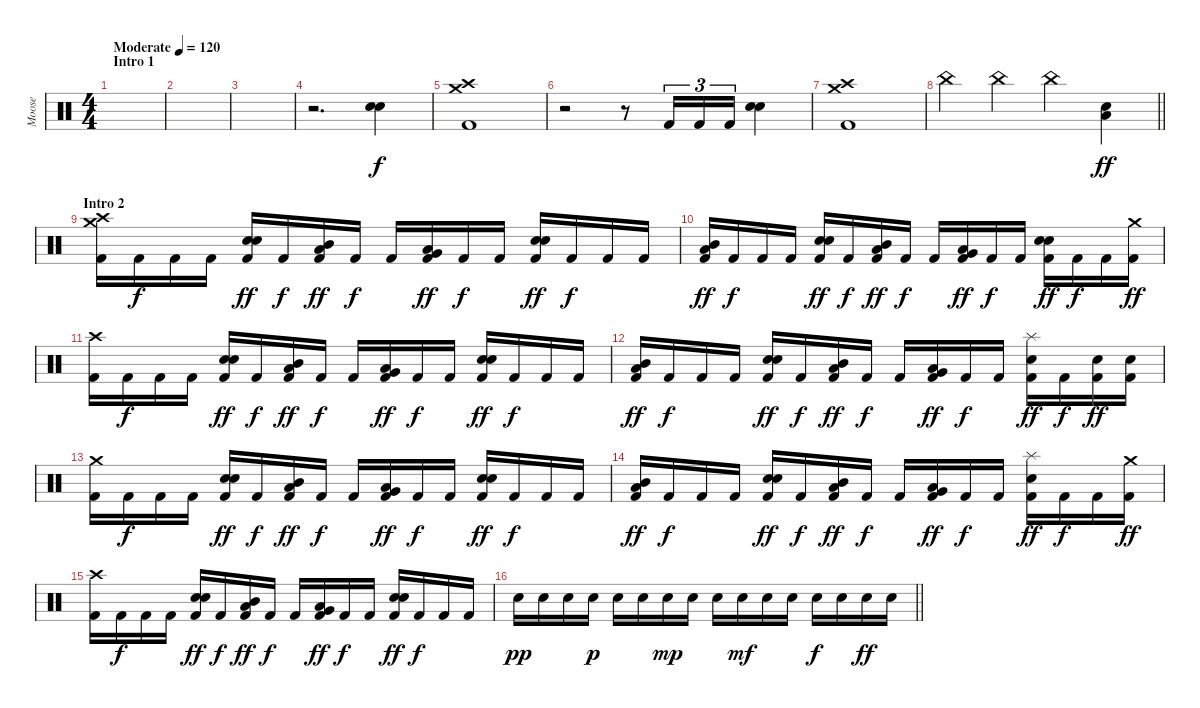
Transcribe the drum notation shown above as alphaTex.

\track ("Moose" "Moose") {instrument percussion}
\staff {score}
\articulation defaults
\ts (4 4)
\section ("" "Intro 1")
\tempo (120 "Moderate")
\clef neutral
\ks c
|
|
|
r.2{d} ("Electric Snare (hit)" "Electric Snare (hit)").4 |
("Crash medium (hit)" "Crash high (hit)" "Kick (hit) 2").1 |
r.2 r.8 "Kick (hit) 2".16{tu (3 2)} "Kick (hit) 2".16{tu (3 2)} "Kick (hit) 2".16{tu (3 2)} ("Electric Snare (hit)" "Electric Snare (hit)").4 |
("Crash medium (hit)" "Crash high (hit)" "Kick (hit) 2").1 |
\barLineRight lightlight "China (hit)".4 "China (hit)".4 "China (hit)".4
("Low Tom (hit)" "Electric Snare (hit)").4{dy ff} |
\section ("" "Intro 2")
("Crash medium (hit)" "Crash high (hit)" "Kick (hit) 2").16 "Kick (hit) 2".16{dy f} "Kick (hit) 2".16 "Kick (hit) 2".16 ("Electric Snare (hit)" "Electric Snare (hit)" "Kick (hit) 2").16{dy ff} "Kick (hit) 2".16{dy f} ("Mid Tom (hit)" "Low Tom (hit)" "Kick (hit) 2").16{dy ff} "Kick (hit) 2".16{dy f} "Kick (hit) 2".16 ("Low Tom (hit)" "Very Low Tom (hit)" "Kick (hit) 2").16{dy ff} "Kick (hit) 2".16{dy f} "Kick (hit) 2".16 ("Electric Snare (hit)" "Electric Snare (hit)" "Kick (hit) 2").16{dy ff} "Kick (hit) 2".16{dy f} "Kick (hit) 2".16 "Kick (hit) 2".16 |
("Mid Tom (hit)" "Low Tom (hit)" "Kick (hit) 2").16{dy ff} "Kick (hit) 2".16{dy f} "Kick (hit) 2".16 "Kick (hit) 2".16 ("Electric Snare (hit)" "Electric Snare (hit)" "Kick (hit) 2").16{dy ff} "Kick (hit) 2".16{dy f} ("Mid Tom (hit)" "Low Tom (hit)" "Kick (hit) 2").16{dy ff} "Kick (hit) 2".16{dy f} "Kick (hit) 2".16 ("Low Tom (hit)" "Very Low Tom (hit)" "Kick (hit) 2").16{dy ff} "Kick (hit) 2".16{dy f} "Kick (hit) 2".16 ("Electric Snare (hit)" "Electric Snare (hit)" "Kick (hit) 2").16{dy ff} "Kick (hit) 2".16{dy f} "Kick (hit) 2".16 ("Crash medium (hit)" "Kick (hit) 2").16{dy ff} |
("Crash high (hit)" "Kick (hit) 2").16 "Kick (hit) 2".16{dy f} "Kick (hit) 2".16 "Kick (hit) 2".16 ("Electric Snare (hit)" "Electric Snare (hit)" "Kick (hit) 2").16{dy ff} "Kick (hit) 2".16{dy f} ("Mid Tom (hit)" "Low Tom (hit)" "Kick (hit) 2").16{dy ff} "Kick (hit) 2".16{dy f} "Kick (hit) 2".16 ("Low Tom (hit)" "Very Low Tom (hit)" "Kick (hit) 2").16{dy ff} "Kick (hit) 2".16{dy f} "Kick (hit) 2".16 ("Electric Snare (hit)" "Electric Snare (hit)" "Kick (hit) 2").16{dy ff} "Kick (hit) 2".16{dy f} "Kick (hit) 2".16 "Kick (hit) 2".16 |
("Mid Tom (hit)" "Low Tom (hit)" "Kick (hit) 2").16{dy ff} "Kick (hit) 2".16{dy f} "Kick (hit) 2".16 "Kick (hit) 2".16 ("Electric Snare (hit)" "Electric Snare (hit)" "Kick (hit) 2").16{dy ff} "Kick (hit) 2".16{dy f} ("Mid Tom (hit)" "Low Tom (hit)" "Kick (hit) 2").16{dy ff} "Kick (hit) 2".16{dy f} "Kick (hit) 2".16 ("Low Tom (hit)" "Very Low Tom (hit)" "Kick (hit) 2").16{dy ff} "Kick (hit) 2".16{dy f} "Kick (hit) 2".16 ("Splash (hit)" "Electric Snare (hit)" "Kick (hit) 2").16{dy ff} "Kick (hit) 2".16{dy f} ("Electric Snare (hit)" "Kick (hit) 2").16{dy ff} ("Electric Snare (hit)" "Kick (hit) 2").16 |
("Crash medium (hit)" "Kick (hit) 2").16 "Kick (hit) 2".16{dy f} "Kick (hit) 2".16 "Kick (hit) 2".16 ("Electric Snare (hit)" "Electric Snare (hit)" "Kick (hit) 2").16{dy ff} "Kick (hit) 2".16{dy f} ("Mid Tom (hit)" "Low Tom (hit)" "Kick (hit) 2").16{dy ff} "Kick (hit) 2".16{dy f} "Kick (hit) 2".16 ("Low Tom (hit)" "Very Low Tom (hit)" "Kick (hit) 2").16{dy ff} "Kick (hit) 2".16{dy f} "Kick (hit) 2".16 ("Electric Snare (hit)" "Electric Snare (hit)" "Kick (hit) 2").16{dy ff} "Kick (hit) 2".16{dy f} "Kick (hit) 2".16 "Kick (hit) 2".16 |
("Mid Tom (hit)" "Low Tom (hit)" "Kick (hit) 2").16{dy ff} "Kick (hit) 2".16{dy f} "Kick (hit) 2".16 "Kick (hit) 2".16 ("Electric Snare (hit)" "Electric Snare (hit)" "Kick (hit) 2").16{dy ff} "Kick (hit) 2".16{dy f} ("Mid Tom (hit)" "Low Tom (hit)" "Kick (hit) 2").16{dy ff} "Kick (hit) 2".16{dy f} "Kick (hit) 2".16 ("Low Tom (hit)" "Very Low Tom (hit)" "Kick (hit) 2").16{dy ff} "Kick (hit) 2".16{dy f} "Kick (hit) 2".16 ("Splash (hit)" "Electric Snare (hit)" "Kick (hit) 2").16{dy ff} "Kick (hit) 2".16{dy f} "Kick (hit) 2".16 ("Crash medium (hit)" "Kick (hit) 2").16{dy ff} |
("Crash high (hit)" "Kick (hit) 2").16 "Kick (hit) 2".16{dy f} "Kick (hit) 2".16 "Kick (hit) 2".16 ("Electric Snare (hit)" "Electric Snare (hit)" "Kick (hit) 2").16{dy ff} "Kick (hit) 2".16{dy f} ("Mid Tom (hit)" "Low Tom (hit)" "Kick (hit) 2").16{dy ff} "Kick (hit) 2".16{dy f} "Kick (hit) 2".16 ("Low Tom (hit)" "Very Low Tom (hit)" "Kick (hit) 2").16{dy ff} "Kick (hit) 2".16{dy f} "Kick (hit) 2".16 ("Electric Snare (hit)" "Electric Snare (hit)" "Kick (hit) 2").16{dy ff} "Kick (hit) 2".16{dy f} "Kick (hit) 2".16 "Kick (hit) 2".16 |
\barLineRight lightlight "Electric Snare (hit)".16{dy pp} "Electric Snare (hit)".16 "Electric Snare (hit)".16 "Electric Snare (hit)".16{dy p} "Electric Snare (hit)".16 "Electric Snare (hit)".16 "Electric Snare (hit)".16{dy mp} "Electric Snare (hit)".16 "Electric Snare (hit)".16 "Electric Snare (hit)".16{dy mf} "Electric Snare (hit)".16 "Electric Snare (hit)".16 "Electric Snare (hit)".16{dy f} "Electric Snare (hit)".16 "Electric Snare (hit)".16{dy ff} "Electric Snare (hit)".16
